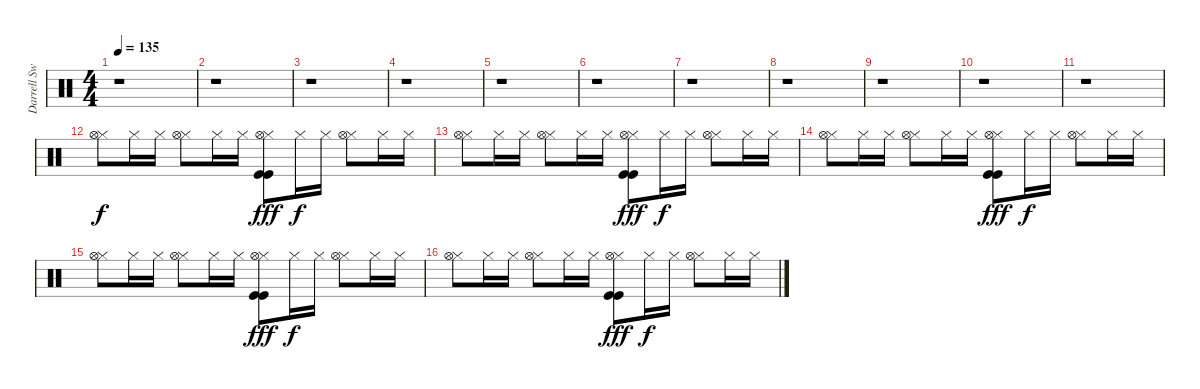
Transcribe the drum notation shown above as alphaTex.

\track ("Darrell Sweet (drums)" "Darrell Sw") {instrument percussion}
\staff {score}
\articulation defaults
\ts (4 4)
\tempo 135
\clef neutral
\ks c
r.1{dy fff} |
r.1 |
r.1 |
r.1 |
r.1 |
r.1 |
r.1 |
r.1 |
r.1 |
r.1 |
r.1 |
("Hi-Hat (closed)" "Hi-Hat (open)").8{dy f} "Hi-Hat (closed)".16 "Hi-Hat (closed)".16 ("Hi-Hat (closed)" "Hi-Hat (open)").8 "Hi-Hat (closed)".16 "Hi-Hat (closed)".16 ("Hi-Hat (closed)" "Hi-Hat (open)" "Kick (hit)" "Kick (hit)").8{dy fff} "Hi-Hat (closed)".16{dy f} "Hi-Hat (closed)".16 ("Hi-Hat (closed)" "Hi-Hat (open)").8 "Hi-Hat (closed)".16 "Hi-Hat (closed)".16 |
("Hi-Hat (closed)" "Hi-Hat (open)").8 "Hi-Hat (closed)".16 "Hi-Hat (closed)".16 ("Hi-Hat (closed)" "Hi-Hat (open)").8 "Hi-Hat (closed)".16 "Hi-Hat (closed)".16 ("Hi-Hat (closed)" "Hi-Hat (open)" "Kick (hit)" "Kick (hit)").8{dy fff} "Hi-Hat (closed)".16{dy f} "Hi-Hat (closed)".16 ("Hi-Hat (closed)" "Hi-Hat (open)").8 "Hi-Hat (closed)".16 "Hi-Hat (closed)".16 |
("Hi-Hat (closed)" "Hi-Hat (open)").8 "Hi-Hat (closed)".16 "Hi-Hat (closed)".16 ("Hi-Hat (closed)" "Hi-Hat (open)").8 "Hi-Hat (closed)".16 "Hi-Hat (closed)".16 ("Hi-Hat (closed)" "Hi-Hat (open)" "Kick (hit)" "Kick (hit)").8{dy fff} "Hi-Hat (closed)".16{dy f} "Hi-Hat (closed)".16 ("Hi-Hat (closed)" "Hi-Hat (open)").8 "Hi-Hat (closed)".16 "Hi-Hat (closed)".16 |
("Hi-Hat (closed)" "Hi-Hat (open)").8 "Hi-Hat (closed)".16 "Hi-Hat (closed)".16 ("Hi-Hat (closed)" "Hi-Hat (open)").8 "Hi-Hat (closed)".16 "Hi-Hat (closed)".16 ("Hi-Hat (closed)" "Hi-Hat (open)" "Kick (hit)" "Kick (hit)").8{dy fff} "Hi-Hat (closed)".16{dy f} "Hi-Hat (closed)".16 ("Hi-Hat (closed)" "Hi-Hat (open)").8 "Hi-Hat (closed)".16 "Hi-Hat (closed)".16 |
("Hi-Hat (closed)" "Hi-Hat (open)").8 "Hi-Hat (closed)".16 "Hi-Hat (closed)".16 ("Hi-Hat (closed)" "Hi-Hat (open)").8 "Hi-Hat (closed)".16 "Hi-Hat (closed)".16 ("Hi-Hat (closed)" "Hi-Hat (open)" "Kick (hit)" "Kick (hit)").8{dy fff} "Hi-Hat (closed)".16{dy f} "Hi-Hat (closed)".16 ("Hi-Hat (closed)" "Hi-Hat (open)").8 "Hi-Hat (closed)".16 "Hi-Hat (closed)".16
